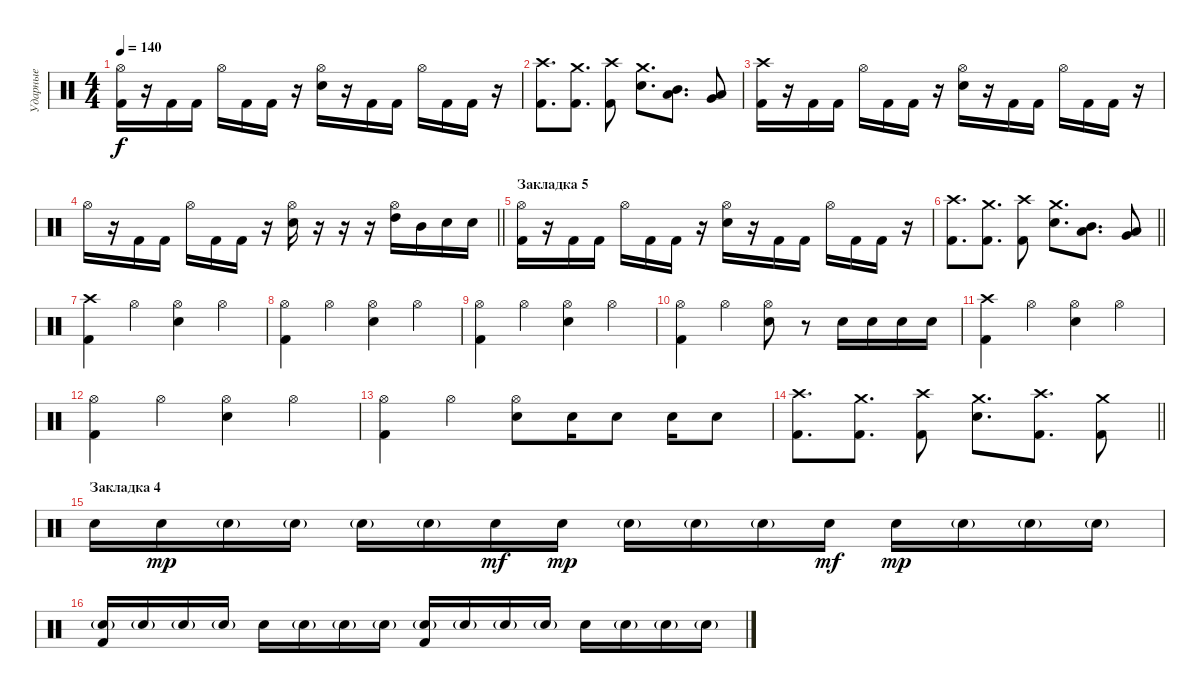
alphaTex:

\track ("Ударные" "Ударные") {instrument percussion}
\staff {score}
\articulation defaults
\ts (4 4)
\tempo 140
\clef neutral
\ks c
("Hi-Hat (open)" "Kick (hit) 2").16{dy f} r.16 "Kick (hit) 2".16 "Kick (hit) 2".16 "Hi-Hat (open)".16 "Kick (hit) 2".16 "Kick (hit) 2".16 r.16 ("Hi-Hat (open)" "Electric Snare (hit)").16 r.16 "Kick (hit) 2".16 "Kick (hit) 2".16 "Hi-Hat (open)".16 "Kick (hit) 2".16 "Kick (hit) 2".16 r.16 |
("Crash high (hit)" "Kick (hit) 2").8{d} ("Crash medium (hit)" "Kick (hit) 2").8{d} ("Crash high (hit)" "Kick (hit) 2").8 ("Crash medium (hit)" "Electric Snare (hit)").8{d} ("Mid Tom (hit)" "Low Tom (hit)").8{d} ("Very Low Tom (hit)" "Low Floor Tom (hit)").8 |
("Crash high (hit)" "Kick (hit) 2").16 r.16 "Kick (hit) 2".16 "Kick (hit) 2".16 "Hi-Hat (open)".16 "Kick (hit) 2".16 "Kick (hit) 2".16 r.16 ("Hi-Hat (open)" "Electric Snare (hit)").16 r.16 "Kick (hit) 2".16 "Kick (hit) 2".16 "Hi-Hat (open)".16 "Kick (hit) 2".16 "Kick (hit) 2".16 r.16 |
\barLineRight lightlight "Hi-Hat (open)".16
r.16 "Kick (hit) 2".16 "Kick (hit) 2".16 "Hi-Hat (open)".16 "Kick (hit) 2".16 "Kick (hit) 2".16 r.16 ("Hi-Hat (open)" "Electric Snare (hit)").16 r.16 r.16 r.16 ("Hi-Hat (open)" "High Tom (hit)").16 "Mid Tom (hit)".16 "Electric Snare (hit)".16 "Electric Snare (hit)".16 |
\section ("" "Закладка 5")
("Hi-Hat (open)" "Kick (hit) 2").16 r.16 "Kick (hit) 2".16 "Kick (hit) 2".16 "Hi-Hat (open)".16 "Kick (hit) 2".16 "Kick (hit) 2".16 r.16 ("Hi-Hat (open)" "Electric Snare (hit)").16 r.16 "Kick (hit) 2".16 "Kick (hit) 2".16 "Hi-Hat (open)".16 "Kick (hit) 2".16 "Kick (hit) 2".16 r.16 |
\barLineRight lightlight
("Crash high (hit)" "Kick (hit) 2").8{d} ("Crash medium (hit)" "Kick (hit) 2").8{d} ("Crash high (hit)" "Kick (hit) 2").8 ("Crash medium (hit)" "Electric Snare (hit)").8{d} ("Mid Tom (hit)" "Low Tom (hit)").8{d} ("Very Low Tom (hit)" "Low Floor Tom (hit)").8 |
("Crash high (hit)" "Kick (hit) 2").4 "Hi-Hat (open)".4 ("Hi-Hat (open)" "Electric Snare (hit)").4 "Hi-Hat (open)".4 |
("Hi-Hat (open)" "Kick (hit) 2").4 "Hi-Hat (open)".4 ("Hi-Hat (open)" "Electric Snare (hit)").4 "Hi-Hat (open)".4 |
("Hi-Hat (open)" "Kick (hit) 2").4 "Hi-Hat (open)".4 ("Hi-Hat (open)" "Electric Snare (hit)").4 "Hi-Hat (open)".4 |
("Hi-Hat (open)" "Kick (hit) 2").4 "Hi-Hat (open)".4 ("Hi-Hat (open)" "Electric Snare (hit)").8 r.8 "Electric Snare (hit)".16 "Electric Snare (hit)".16 "Electric Snare (hit)".16 "Electric Snare (hit)".16 |
("Crash high (hit)" "Kick (hit) 2").4 "Hi-Hat (open)".4 ("Hi-Hat (open)" "Electric Snare (hit)").4 "Hi-Hat (open)".4 |
("Hi-Hat (open)" "Kick (hit) 2").4 "Hi-Hat (open)".4 ("Hi-Hat (open)" "Electric Snare (hit)").4 "Hi-Hat (open)".4 |
("Hi-Hat (open)" "Kick (hit) 2").4 "Hi-Hat (open)".4 ("Hi-Hat (open)" "Electric Snare (hit)").8 "Electric Snare (hit)".16 "Electric Snare (hit)".8 "Electric Snare (hit)".16 "Electric Snare (hit)".8 |
\barLineRight lightlight
("Crash high (hit)" "Kick (hit) 2").8{d} ("Crash medium (hit)" "Kick (hit) 2").8{d} ("Crash high (hit)" "Kick (hit) 2").8 ("Crash medium (hit)" "Electric Snare (hit)").8{d} ("Crash high (hit)" "Kick (hit) 2").8{d} ("Crash medium (hit)" "Kick (hit) 2").8 |
\section ("" "Закладка 4")
"Electric Snare (hit)".16 "Electric Snare (hit)".16{dy mp} "Electric Snare (hit)"{g}.16 "Electric Snare (hit)"{g}.16 "Electric Snare (hit)"{g}.16 "Electric Snare (hit)"{g}.16 "Electric Snare (hit)".16{dy mf} "Electric Snare (hit)".16{dy mp} "Electric Snare (hit)"{g}.16 "Electric Snare (hit)"{g}.16 "Electric Snare (hit)"{g}.16 "Electric Snare (hit)".16{dy mf} "Electric Snare (hit)".16{dy mp} "Electric Snare (hit)"{g}.16 "Electric Snare (hit)"{g}.16 "Electric Snare (hit)"{g}.16 |
("Electric Snare (hit)"{g} "Kick (hit) 2").16 "Electric Snare (hit)"{g}.16 "Electric Snare (hit)"{g}.16 "Electric Snare (hit)"{g}.16 "Electric Snare (hit)".16 "Electric Snare (hit)"{g}.16 "Electric Snare (hit)"{g}.16 "Electric Snare (hit)"{g}.16 ("Electric Snare (hit)"{g} "Kick (hit) 2").16 "Electric Snare (hit)"{g}.16 "Electric Snare (hit)"{g}.16 "Electric Snare (hit)"{g}.16 "Electric Snare (hit)".16 "Electric Snare (hit)"{g}.16 "Electric Snare (hit)"{g}.16 "Electric Snare (hit)"{g}.16
